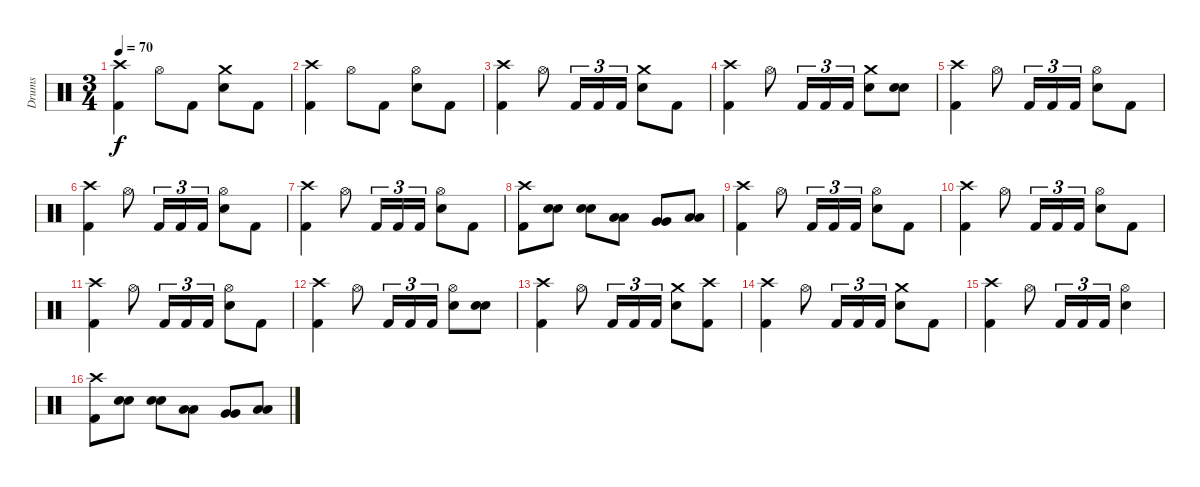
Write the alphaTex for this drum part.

\track ("Drums" "Drums") {instrument percussion}
\staff {score}
\articulation defaults
\ts (3 4)
\tempo 70
\clef neutral
\ks c
("Crash high (hit)" "Kick (hit) 2").4{dy f} "Hi-Hat (open)".8 "Kick (hit) 2".8 ("Crash medium (hit)" "Electric Snare (hit)").8 "Kick (hit) 2".8 |
("Crash high (hit)" "Kick (hit) 2").4 "Hi-Hat (open)".8 "Kick (hit) 2".8 ("Hi-Hat (open)" "Electric Snare (hit)").8 "Kick (hit) 2".8 |
("Crash high (hit)" "Kick (hit) 2").4 "Hi-Hat (open)".8 "Kick (hit) 2".16{tu (3 2)} "Kick (hit) 2".16{tu (3 2)} "Kick (hit) 2".16{tu (3 2)} ("Crash medium (hit)" "Electric Snare (hit)").8 "Kick (hit) 2".8 |
("Crash high (hit)" "Kick (hit) 2").4 "Hi-Hat (open)".8 "Kick (hit) 2".16{tu (3 2)} "Kick (hit) 2".16{tu (3 2)} "Kick (hit) 2".16{tu (3 2)} ("Crash medium (hit)" "Electric Snare (hit)").8 ("Electric Snare (hit)" "Electric Snare (hit)").8{bu 60} |
("Crash high (hit)" "Kick (hit) 2").4 "Hi-Hat (open)".8 "Kick (hit) 2".16{tu (3 2)} "Kick (hit) 2".16{tu (3 2)} "Kick (hit) 2".16{tu (3 2)} ("Hi-Hat (open)" "Electric Snare (hit)").8 "Kick (hit) 2".8 |
("Crash high (hit)" "Kick (hit) 2").4 "Hi-Hat (open)".8 "Kick (hit) 2".16{tu (3 2)} "Kick (hit) 2".16{tu (3 2)} "Kick (hit) 2".16{tu (3 2)} ("Hi-Hat (open)" "Electric Snare (hit)").8 "Kick (hit) 2".8 |
("Crash high (hit)" "Kick (hit) 2").4 "Hi-Hat (open)".8 "Kick (hit) 2".16{tu (3 2)} "Kick (hit) 2".16{tu (3 2)} "Kick (hit) 2".16{tu (3 2)} ("Hi-Hat (open)" "Electric Snare (hit)").8 "Kick (hit) 2".8 |
("Crash high (hit)" "Kick (hit) 2").8 ("Electric Snare (hit)" "Electric Snare (hit)").8{bu 60} ("Electric Snare (hit)" "Electric Snare (hit)").8{bu 60} ("Low Tom (hit)" "Low Tom (hit)").8{bu 60} ("Very Low Tom (hit)" "Very Low Tom (hit)").8{bu 60} ("Low Floor Tom (hit)" "Low Floor Tom (hit)").8{bu 60} |
("Crash high (hit)" "Kick (hit) 2").4 "Hi-Hat (open)".8 "Kick (hit) 2".16{tu (3 2)} "Kick (hit) 2".16{tu (3 2)} "Kick (hit) 2".16{tu (3 2)} ("Hi-Hat (open)" "Electric Snare (hit)").8 "Kick (hit) 2".8 |
("Crash high (hit)" "Kick (hit) 2").4 "Hi-Hat (open)".8 "Kick (hit) 2".16{tu (3 2)} "Kick (hit) 2".16{tu (3 2)} "Kick (hit) 2".16{tu (3 2)} ("Hi-Hat (open)" "Electric Snare (hit)").8 "Kick (hit) 2".8 |
("Crash high (hit)" "Kick (hit) 2").4 "Hi-Hat (open)".8 "Kick (hit) 2".16{tu (3 2)} "Kick (hit) 2".16{tu (3 2)} "Kick (hit) 2".16{tu (3 2)} ("Hi-Hat (open)" "Electric Snare (hit)").8 "Kick (hit) 2".8 |
("Crash high (hit)" "Kick (hit) 2").4 "Hi-Hat (open)".8 "Kick (hit) 2".16{tu (3 2)} "Kick (hit) 2".16{tu (3 2)} "Kick (hit) 2".16{tu (3 2)} ("Hi-Hat (open)" "Electric Snare (hit)").8 ("Electric Snare (hit)" "Electric Snare (hit)").8{bu 60} |
("Crash high (hit)" "Kick (hit) 2").4 "Hi-Hat (open)".8 "Kick (hit) 2".16{tu (3 2)} "Kick (hit) 2".16{tu (3 2)} "Kick (hit) 2".16{tu (3 2)} ("Crash medium (hit)" "Electric Snare (hit)").8 ("Crash high (hit)" "Kick (hit) 2").8 |
("Crash high (hit)" "Kick (hit) 2").4 "Hi-Hat (open)".8 "Kick (hit) 2".16{tu (3 2)} "Kick (hit) 2".16{tu (3 2)} "Kick (hit) 2".16{tu (3 2)} ("Crash medium (hit)" "Electric Snare (hit)").8 "Kick (hit) 2".8 |
("Crash high (hit)" "Kick (hit) 2").4 "Hi-Hat (open)".8 "Kick (hit) 2".16{tu (3 2)} "Kick (hit) 2".16{tu (3 2)} "Kick (hit) 2".16{tu (3 2)} ("Hi-Hat (open)" "Electric Snare (hit)").4 |
("Crash high (hit)" "Kick (hit) 2").8 ("Electric Snare (hit)" "Electric Snare (hit)").8{bu 60} ("Electric Snare (hit)" "Electric Snare (hit)").8{bu 60} ("Low Tom (hit)" "Low Tom (hit)").8{bu 60} ("Very Low Tom (hit)" "Very Low Tom (hit)").8{bu 60} ("Low Floor Tom (hit)" "Low Floor Tom (hit)").8{bu 60}
